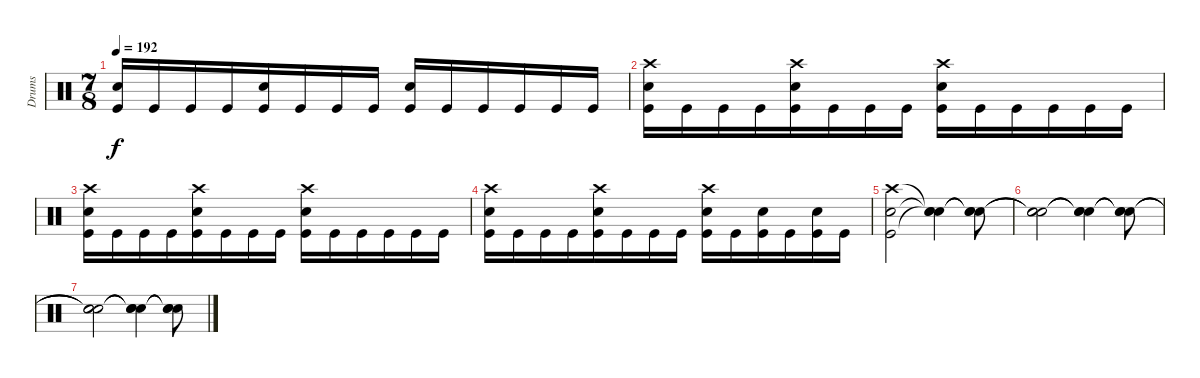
\track ("Drums" "Drums") {instrument percussion}
\staff {score}
\articulation defaults
\ts (7 8)
\tempo 192
\clef neutral
\ks c
("Snare (hit) 2" "Kick (hit)").16{dy f} "Kick (hit)".16 "Kick (hit)".16 "Kick (hit)".16 ("Snare (hit) 2" "Kick (hit)").16 "Kick (hit)".16 "Kick (hit)".16 "Kick (hit)".16 ("Snare (hit) 2" "Kick (hit)").16 "Kick (hit)".16 "Kick (hit)".16 "Kick (hit)".16 "Kick (hit)".16 "Kick (hit)".16 |
("Crash high (hit)" "Snare (hit) 2" "Kick (hit)").16 "Kick (hit)".16 "Kick (hit)".16 "Kick (hit)".16 ("Crash high (hit)" "Snare (hit) 2" "Kick (hit)").16 "Kick (hit)".16 "Kick (hit)".16 "Kick (hit)".16 ("Crash high (hit)" "Snare (hit) 2" "Kick (hit)").16 "Kick (hit)".16 "Kick (hit)".16 "Kick (hit)".16 "Kick (hit)".16 "Kick (hit)".16 |
("Crash high (hit)" "Snare (hit) 2" "Kick (hit)").16 "Kick (hit)".16 "Kick (hit)".16 "Kick (hit)".16 ("Crash high (hit)" "Snare (hit) 2" "Kick (hit)").16 "Kick (hit)".16 "Kick (hit)".16 "Kick (hit)".16 ("Crash high (hit)" "Snare (hit) 2" "Kick (hit)").16 "Kick (hit)".16 "Kick (hit)".16 "Kick (hit)".16 "Kick (hit)".16 "Kick (hit)".16 |
("Crash high (hit)" "Snare (hit) 2" "Kick (hit)").16 "Kick (hit)".16 "Kick (hit)".16 "Kick (hit)".16 ("Crash high (hit)" "Snare (hit) 2" "Kick (hit)").16 "Kick (hit)".16 "Kick (hit)".16 "Kick (hit)".16 ("Crash high (hit)" "Snare (hit) 2" "Kick (hit)").16 "Kick (hit)".16 ("Snare (hit) 2" "Kick (hit)").16 "Kick (hit)".16 ("Snare (hit) 2" "Kick (hit)").16 "Kick (hit)".16 |
("Crash high (hit)" "Snare (hit) 2" "Kick (hit)").2 ("Snare (hit)"{t} "Snare (hit)"{t} "Snare (hit)"{t}).4 ("Snare (hit)"{t} "Snare (hit)"{t} "Snare (hit)"{t}).8 |
("Snare (hit)"{t} "Snare (hit)"{t} "Snare (hit)"{t}).2 ("Snare (hit)"{t} "Snare (hit)"{t} "Snare (hit)"{t}).4 ("Snare (hit)"{t} "Snare (hit)"{t} "Snare (hit)"{t}).8 |
("Snare (hit)"{t} "Snare (hit)"{t} "Snare (hit)"{t}).2 ("Snare (hit)"{t} "Snare (hit)"{t} "Snare (hit)"{t}).4 ("Snare (hit)"{t} "Snare (hit)"{t} "Snare (hit)"{t}).8
